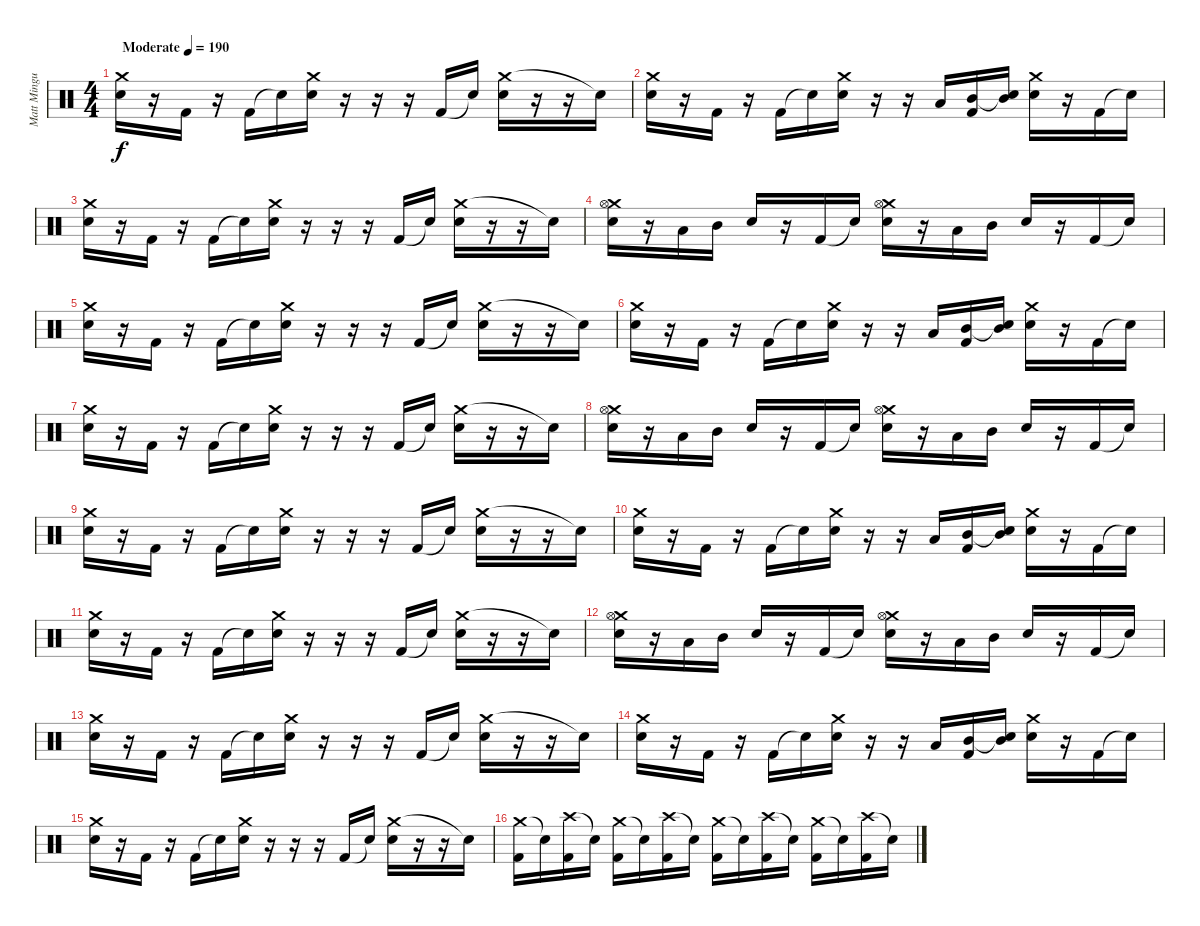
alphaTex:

\track ("Matt Mingus" "Matt Mingu") {instrument percussion}
\staff {score}
\articulation defaults
\ts (4 4)
\tempo (190 "Moderate")
\clef neutral
\ks c
("Crash medium (hit)" "Electric Snare (hit)").16{dy f} r.16 "Kick (hit) 2".16 r.16 "Kick (hit) 2".16 "Snare (hit)"{t}.16 ("Crash medium (hit)" "Electric Snare (hit)").16 r.16 r.16 r.16 "Kick (hit) 2".16 "Snare (hit)"{t}.16 ("Crash medium (hit)" "Electric Snare (hit)").16 r.16 r.16 "Snare (hit)"{t}.16 |
("Crash medium (hit)" "Electric Snare (hit)").16 r.16 "Kick (hit) 2".16 r.16 "Kick (hit) 2".16 "Snare (hit)"{t}.16 ("Crash medium (hit)" "Electric Snare (hit)").16 r.16 r.16 "Low Tom (hit)".16 ("Mid Tom (hit)" "Kick (hit) 2").16 ("Snare (hit)"{t} "Mid Tom (hit)").16 ("Crash medium (hit)" "Electric Snare (hit)").16 r.16 "Kick (hit) 2".16 "Snare (hit)"{t}.16 |
("Crash medium (hit)" "Electric Snare (hit)").16 r.16 "Kick (hit) 2".16 r.16 "Kick (hit) 2".16 "Snare (hit)"{t}.16 ("Crash medium (hit)" "Electric Snare (hit)").16 r.16 r.16 r.16 "Kick (hit) 2".16 "Snare (hit)"{t}.16 ("Crash medium (hit)" "Electric Snare (hit)").16 r.16 r.16 "Snare (hit)"{t}.16 |
("Crash medium (hit)" "Electric Snare (hit)" "Hi-Hat (open)").16 r.16 "Low Tom (hit)".16 "Mid Tom (hit)".16 "Electric Snare (hit)".16 r.16 "Kick (hit) 2".16 "Snare (hit)"{t}.16 ("Crash medium (hit)" "Electric Snare (hit)" "Hi-Hat (open)").16 r.16 "Low Tom (hit)".16 "Mid Tom (hit)".16 "Electric Snare (hit)".16 r.16 "Kick (hit) 2".16 "Snare (hit)"{t}.16 |
("Crash medium (hit)" "Electric Snare (hit)").16 r.16 "Kick (hit) 2".16 r.16 "Kick (hit) 2".16 "Snare (hit)"{t}.16 ("Crash medium (hit)" "Electric Snare (hit)").16 r.16 r.16 r.16 "Kick (hit) 2".16 "Snare (hit)"{t}.16 ("Crash medium (hit)" "Electric Snare (hit)").16 r.16 r.16 "Snare (hit)"{t}.16 |
("Crash medium (hit)" "Electric Snare (hit)").16 r.16 "Kick (hit) 2".16 r.16 "Kick (hit) 2".16 "Snare (hit)"{t}.16 ("Crash medium (hit)" "Electric Snare (hit)").16 r.16 r.16 "Low Tom (hit)".16 ("Mid Tom (hit)" "Kick (hit) 2").16 ("Snare (hit)"{t} "Mid Tom (hit)").16 ("Crash medium (hit)" "Electric Snare (hit)").16 r.16 "Kick (hit) 2".16 "Snare (hit)"{t}.16 |
("Crash medium (hit)" "Electric Snare (hit)").16 r.16 "Kick (hit) 2".16 r.16 "Kick (hit) 2".16 "Snare (hit)"{t}.16 ("Crash medium (hit)" "Electric Snare (hit)").16 r.16 r.16 r.16 "Kick (hit) 2".16 "Snare (hit)"{t}.16 ("Crash medium (hit)" "Electric Snare (hit)").16 r.16 r.16 "Snare (hit)"{t}.16 |
("Crash medium (hit)" "Electric Snare (hit)" "Hi-Hat (open)").16 r.16 "Low Tom (hit)".16 "Mid Tom (hit)".16 "Electric Snare (hit)".16 r.16 "Kick (hit) 2".16 "Snare (hit)"{t}.16 ("Crash medium (hit)" "Electric Snare (hit)" "Hi-Hat (open)").16 r.16 "Low Tom (hit)".16 "Mid Tom (hit)".16 "Electric Snare (hit)".16 r.16 "Kick (hit) 2".16 "Snare (hit)"{t}.16 |
("Crash medium (hit)" "Electric Snare (hit)").16 r.16 "Kick (hit) 2".16 r.16 "Kick (hit) 2".16 "Snare (hit)"{t}.16 ("Crash medium (hit)" "Electric Snare (hit)").16 r.16 r.16 r.16 "Kick (hit) 2".16 "Snare (hit)"{t}.16 ("Crash medium (hit)" "Electric Snare (hit)").16 r.16 r.16 "Snare (hit)"{t}.16 |
("Crash medium (hit)" "Electric Snare (hit)").16 r.16 "Kick (hit) 2".16 r.16 "Kick (hit) 2".16 "Snare (hit)"{t}.16 ("Crash medium (hit)" "Electric Snare (hit)").16 r.16 r.16 "Low Tom (hit)".16 ("Mid Tom (hit)" "Kick (hit) 2").16 ("Snare (hit)"{t} "Mid Tom (hit)").16 ("Crash medium (hit)" "Electric Snare (hit)").16 r.16 "Kick (hit) 2".16 "Snare (hit)"{t}.16 |
("Crash medium (hit)" "Electric Snare (hit)").16 r.16 "Kick (hit) 2".16 r.16 "Kick (hit) 2".16 "Snare (hit)"{t}.16 ("Crash medium (hit)" "Electric Snare (hit)").16 r.16 r.16 r.16 "Kick (hit) 2".16 "Snare (hit)"{t}.16 ("Crash medium (hit)" "Electric Snare (hit)").16 r.16 r.16 "Snare (hit)"{t}.16 |
("Crash medium (hit)" "Electric Snare (hit)" "Hi-Hat (open)").16 r.16 "Low Tom (hit)".16 "Mid Tom (hit)".16 "Electric Snare (hit)".16 r.16 "Kick (hit) 2".16 "Snare (hit)"{t}.16 ("Crash medium (hit)" "Electric Snare (hit)" "Hi-Hat (open)").16 r.16 "Low Tom (hit)".16 "Mid Tom (hit)".16 "Electric Snare (hit)".16 r.16 "Kick (hit) 2".16 "Snare (hit)"{t}.16 |
("Crash medium (hit)" "Electric Snare (hit)").16 r.16 "Kick (hit) 2".16 r.16 "Kick (hit) 2".16 "Snare (hit)"{t}.16 ("Crash medium (hit)" "Electric Snare (hit)").16 r.16 r.16 r.16 "Kick (hit) 2".16 "Snare (hit)"{t}.16 ("Crash medium (hit)" "Electric Snare (hit)").16 r.16 r.16 "Snare (hit)"{t}.16 |
("Crash medium (hit)" "Electric Snare (hit)").16 r.16 "Kick (hit) 2".16 r.16 "Kick (hit) 2".16 "Snare (hit)"{t}.16 ("Crash medium (hit)" "Electric Snare (hit)").16 r.16 r.16 "Low Tom (hit)".16 ("Mid Tom (hit)" "Kick (hit) 2").16 ("Snare (hit)"{t} "Mid Tom (hit)").16 ("Crash medium (hit)" "Electric Snare (hit)").16 r.16 "Kick (hit) 2".16 "Snare (hit)"{t}.16 |
("Crash medium (hit)" "Electric Snare (hit)").16 r.16 "Kick (hit) 2".16 r.16 "Kick (hit) 2".16 "Snare (hit)"{t}.16 ("Crash medium (hit)" "Electric Snare (hit)").16 r.16 r.16 r.16 "Kick (hit) 2".16 "Snare (hit)"{t}.16 ("Crash medium (hit)" "Electric Snare (hit)").16 r.16 r.16 "Snare (hit)"{t}.16 |
("Crash medium (hit)" "Kick (hit) 2").16 "Snare (hit)"{t}.16 ("Crash high (hit)" "Kick (hit) 2").16 "Snare (hit)"{t}.16 ("Crash medium (hit)" "Kick (hit) 2").16 "Snare (hit)"{t}.16 ("Crash high (hit)" "Kick (hit) 2").16 "Snare (hit)"{t}.16 ("Crash medium (hit)" "Kick (hit) 2").16 "Snare (hit)"{t}.16 ("Crash high (hit)" "Kick (hit) 2").16 "Snare (hit)"{t}.16 ("Crash medium (hit)" "Kick (hit) 2").16 "Snare (hit)"{t}.16 ("Crash high (hit)" "Kick (hit) 2").16 "Snare (hit)"{t}.16
